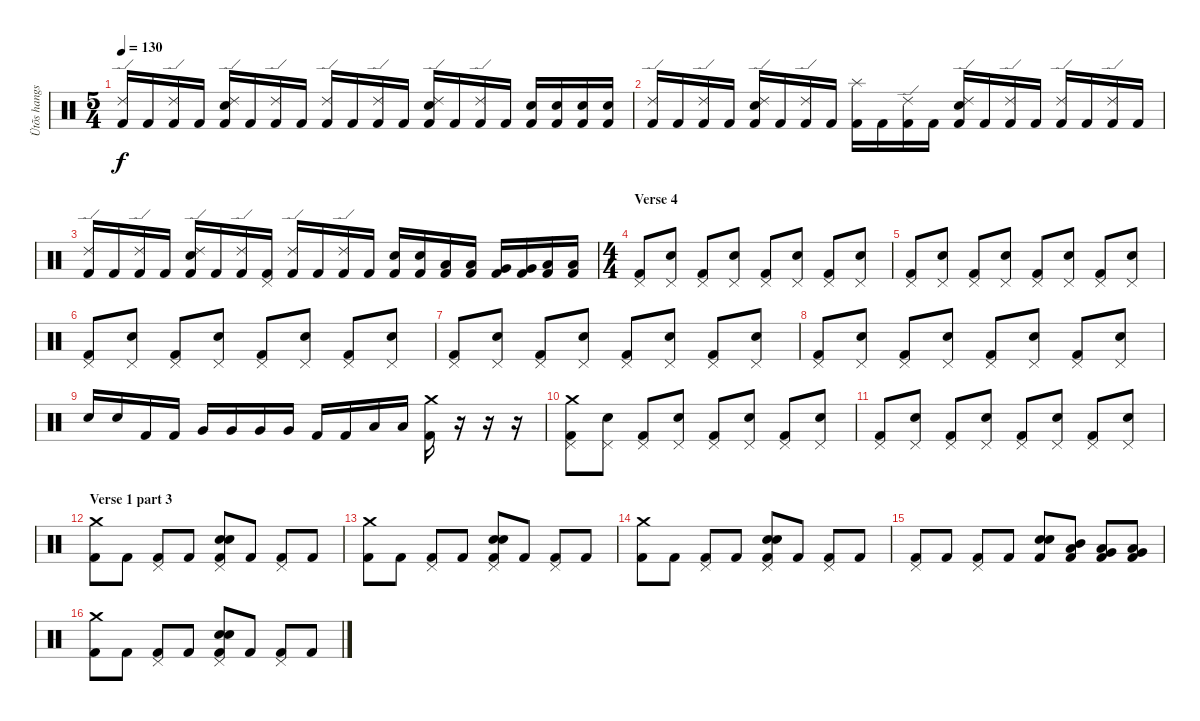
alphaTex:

\track ("Ütõs hangszer" "Ütõs hangs") {instrument percussion}
\staff {score}
\articulation defaults
\ts (5 4)
\tempo 130
\clef neutral
\ks c
("Ride (edge) 2" "Kick (hit) 2").16{dy f} "Kick (hit) 2".16 ("Ride (edge) 2" "Kick (hit) 2").16 "Kick (hit) 2".16 ("Ride (edge) 2" "Snare (hit) 2" "Kick (hit) 2").16 "Kick (hit) 2".16 ("Ride (edge) 2" "Kick (hit) 2").16 "Kick (hit) 2".16 ("Ride (edge) 2" "Kick (hit) 2").16 "Kick (hit) 2".16 ("Ride (edge) 2" "Kick (hit) 2").16 "Kick (hit) 2".16 ("Ride (edge) 2" "Snare (hit) 2" "Kick (hit) 2").16 "Kick (hit) 2".16 ("Ride (edge) 2" "Kick (hit) 2").16 "Kick (hit) 2".16 ("Snare (hit) 2" "Kick (hit) 2").16 ("Snare (hit) 2" "Kick (hit) 2").16 ("Snare (hit) 2" "Kick (hit) 2").16 ("Snare (hit) 2" "Kick (hit) 2").16 |
("Ride (edge) 2" "Kick (hit) 2").16 "Kick (hit) 2".16 ("Ride (edge) 2" "Kick (hit) 2").16 "Kick (hit) 2".16 ("Ride (edge) 2" "Snare (hit) 2" "Kick (hit) 2").16 "Kick (hit) 2".16 ("Ride (edge) 2" "Kick (hit) 2").16 "Kick (hit) 2".16 ("Splash (hit)" "Kick (hit) 2").16 "Kick (hit) 2".16 ("Ride (edge) 2" "Kick (hit) 2").16 "Kick (hit) 2".16 ("Ride (edge) 2" "Snare (hit) 2" "Kick (hit) 2").16 "Kick (hit) 2".16 ("Ride (edge) 2" "Kick (hit) 2").16 "Kick (hit) 2".16 ("Ride (edge) 2" "Kick (hit) 2").16 "Kick (hit) 2".16 ("Ride (edge) 2" "Kick (hit) 2").16 "Kick (hit) 2".16 |
("Ride (edge) 2" "Kick (hit) 2").16 "Kick (hit) 2".16 ("Ride (edge) 2" "Kick (hit) 2").16 "Kick (hit) 2".16 ("Ride (edge) 2" "Snare (hit) 2" "Kick (hit) 2").16 "Kick (hit) 2".16 ("Ride (edge) 2" "Kick (hit) 2").16 ("Pedal Hi-Hat (hit)" "Kick (hit) 2").16 ("Ride (edge) 2" "Kick (hit) 2").16 "Kick (hit) 2".16 ("Ride (edge) 2" "Kick (hit) 2").16 "Kick (hit) 2".16 ("Snare (hit) 2" "Kick (hit) 2").16 ("Snare (hit) 2" "Kick (hit) 2").16 ("Low Tom (hit)" "Kick (hit) 2").16 ("Low Tom (hit)" "Kick (hit) 2").16 ("Very Low Tom (hit)" "Kick (hit) 2").16 ("Very Low Tom (hit)" "Kick (hit) 2").16 ("Low Floor Tom (hit)" "Kick (hit) 2").16 ("Low Floor Tom (hit)" "Kick (hit) 2").16 |
\ts (4 4)
\section ("" "Verse 4")
("Pedal Hi-Hat (hit)" "Kick (hit) 2").8 ("Pedal Hi-Hat (hit)" "Snare (hit) 2").8 ("Pedal Hi-Hat (hit)" "Kick (hit) 2").8 ("Pedal Hi-Hat (hit)" "Snare (hit) 2").8 ("Pedal Hi-Hat (hit)" "Kick (hit) 2").8 ("Pedal Hi-Hat (hit)" "Snare (hit) 2").8 ("Pedal Hi-Hat (hit)" "Kick (hit) 2").8 ("Pedal Hi-Hat (hit)" "Snare (hit) 2").8 |
("Pedal Hi-Hat (hit)" "Kick (hit) 2").8 ("Pedal Hi-Hat (hit)" "Snare (hit) 2").8 ("Pedal Hi-Hat (hit)" "Kick (hit) 2").8 ("Pedal Hi-Hat (hit)" "Snare (hit) 2").8 ("Pedal Hi-Hat (hit)" "Kick (hit) 2").8 ("Pedal Hi-Hat (hit)" "Snare (hit) 2").8 ("Pedal Hi-Hat (hit)" "Kick (hit) 2").8 ("Pedal Hi-Hat (hit)" "Snare (hit) 2").8 |
("Pedal Hi-Hat (hit)" "Kick (hit) 2").8 ("Pedal Hi-Hat (hit)" "Snare (hit) 2").8 ("Pedal Hi-Hat (hit)" "Kick (hit) 2").8 ("Pedal Hi-Hat (hit)" "Snare (hit) 2").8 ("Pedal Hi-Hat (hit)" "Kick (hit) 2").8 ("Pedal Hi-Hat (hit)" "Snare (hit) 2").8 ("Pedal Hi-Hat (hit)" "Kick (hit) 2").8 ("Pedal Hi-Hat (hit)" "Snare (hit) 2").8 |
("Pedal Hi-Hat (hit)" "Kick (hit) 2").8 ("Pedal Hi-Hat (hit)" "Snare (hit) 2").8 ("Pedal Hi-Hat (hit)" "Kick (hit) 2").8 ("Pedal Hi-Hat (hit)" "Snare (hit) 2").8 ("Pedal Hi-Hat (hit)" "Kick (hit) 2").8 ("Pedal Hi-Hat (hit)" "Snare (hit) 2").8 ("Pedal Hi-Hat (hit)" "Kick (hit) 2").8 ("Pedal Hi-Hat (hit)" "Snare (hit) 2").8 |
("Pedal Hi-Hat (hit)" "Kick (hit) 2").8 ("Pedal Hi-Hat (hit)" "Snare (hit) 2").8 ("Pedal Hi-Hat (hit)" "Kick (hit) 2").8 ("Pedal Hi-Hat (hit)" "Snare (hit) 2").8 ("Pedal Hi-Hat (hit)" "Kick (hit) 2").8 ("Pedal Hi-Hat (hit)" "Snare (hit) 2").8 ("Pedal Hi-Hat (hit)" "Kick (hit) 2").8 ("Pedal Hi-Hat (hit)" "Snare (hit) 2").8 |
"Snare (hit) 2".16 "Snare (hit) 2".16 "Kick (hit) 2".16 "Kick (hit) 2".16 "Very Low Tom (hit)".16 "Very Low Tom (hit)".16 "Very Low Tom (hit)".16 "Very Low Tom (hit)".16 "Kick (hit) 2".16 "Kick (hit) 2".16 "Low Floor Tom (hit)".16 "Low Floor Tom (hit)".16 ("Kick (hit) 2" "Crash medium (hit)").16 r.16 r.16 r.16 |
("Crash medium (hit)" "Pedal Hi-Hat (hit)" "Kick (hit) 2").8 ("Pedal Hi-Hat (hit)" "Snare (hit) 2").8 ("Pedal Hi-Hat (hit)" "Kick (hit) 2").8 ("Pedal Hi-Hat (hit)" "Snare (hit) 2").8 ("Pedal Hi-Hat (hit)" "Kick (hit) 2").8 ("Pedal Hi-Hat (hit)" "Snare (hit) 2").8 ("Pedal Hi-Hat (hit)" "Kick (hit) 2").8 ("Pedal Hi-Hat (hit)" "Snare (hit) 2").8 |
("Pedal Hi-Hat (hit)" "Kick (hit) 2").8 ("Pedal Hi-Hat (hit)" "Snare (hit) 2").8 ("Pedal Hi-Hat (hit)" "Kick (hit) 2").8 ("Pedal Hi-Hat (hit)" "Snare (hit) 2").8 ("Pedal Hi-Hat (hit)" "Kick (hit) 2").8 ("Pedal Hi-Hat (hit)" "Snare (hit) 2").8 ("Pedal Hi-Hat (hit)" "Kick (hit) 2").8 ("Pedal Hi-Hat (hit)" "Snare (hit) 2").8 |
\section ("" "Verse 1 part 3")
("Crash medium (hit)" "Kick (hit) 2").8 "Kick (hit) 2".8 ("Pedal Hi-Hat (hit)" "Kick (hit) 2").8 "Kick (hit) 2".8 ("Pedal Hi-Hat (hit)" "Snare (hit) 2" "Electric Snare (hit)" "Kick (hit) 2").8 "Kick (hit) 2".8 ("Pedal Hi-Hat (hit)" "Kick (hit) 2").8 "Kick (hit) 2".8 |
("Crash medium (hit)" "Kick (hit) 2").8 "Kick (hit) 2".8 ("Pedal Hi-Hat (hit)" "Kick (hit) 2").8 "Kick (hit) 2".8 ("Pedal Hi-Hat (hit)" "Snare (hit) 2" "Electric Snare (hit)" "Kick (hit) 2").8 "Kick (hit) 2".8 ("Pedal Hi-Hat (hit)" "Kick (hit) 2").8 "Kick (hit) 2".8 |
("Crash medium (hit)" "Kick (hit) 2").8 "Kick (hit) 2".8 ("Pedal Hi-Hat (hit)" "Kick (hit) 2").8 "Kick (hit) 2".8 ("Pedal Hi-Hat (hit)" "Snare (hit) 2" "Electric Snare (hit)" "Kick (hit) 2").8 "Kick (hit) 2".8 ("Pedal Hi-Hat (hit)" "Kick (hit) 2").8 "Kick (hit) 2".8 |
("Pedal Hi-Hat (hit)" "Kick (hit) 2").8 "Kick (hit) 2".8 ("Pedal Hi-Hat (hit)" "Kick (hit) 2").8 "Kick (hit) 2".8 ("Electric Snare (hit)" "Snare (hit) 2" "Kick (hit) 2").8 ("Mid Tom (hit)" "Low Tom (hit)" "Kick (hit) 2").8 ("Very Low Tom (hit)" "Low Tom (hit)" "Kick (hit) 2").8 ("Low Floor Tom (hit)" "Very Low Tom (hit)" "Kick (hit) 2").8 |
("Crash medium (hit)" "Kick (hit) 2").8 "Kick (hit) 2".8 ("Pedal Hi-Hat (hit)" "Kick (hit) 2").8 "Kick (hit) 2".8 ("Pedal Hi-Hat (hit)" "Snare (hit) 2" "Electric Snare (hit)" "Kick (hit) 2").8 "Kick (hit) 2".8 ("Pedal Hi-Hat (hit)" "Kick (hit) 2").8 "Kick (hit) 2".8
